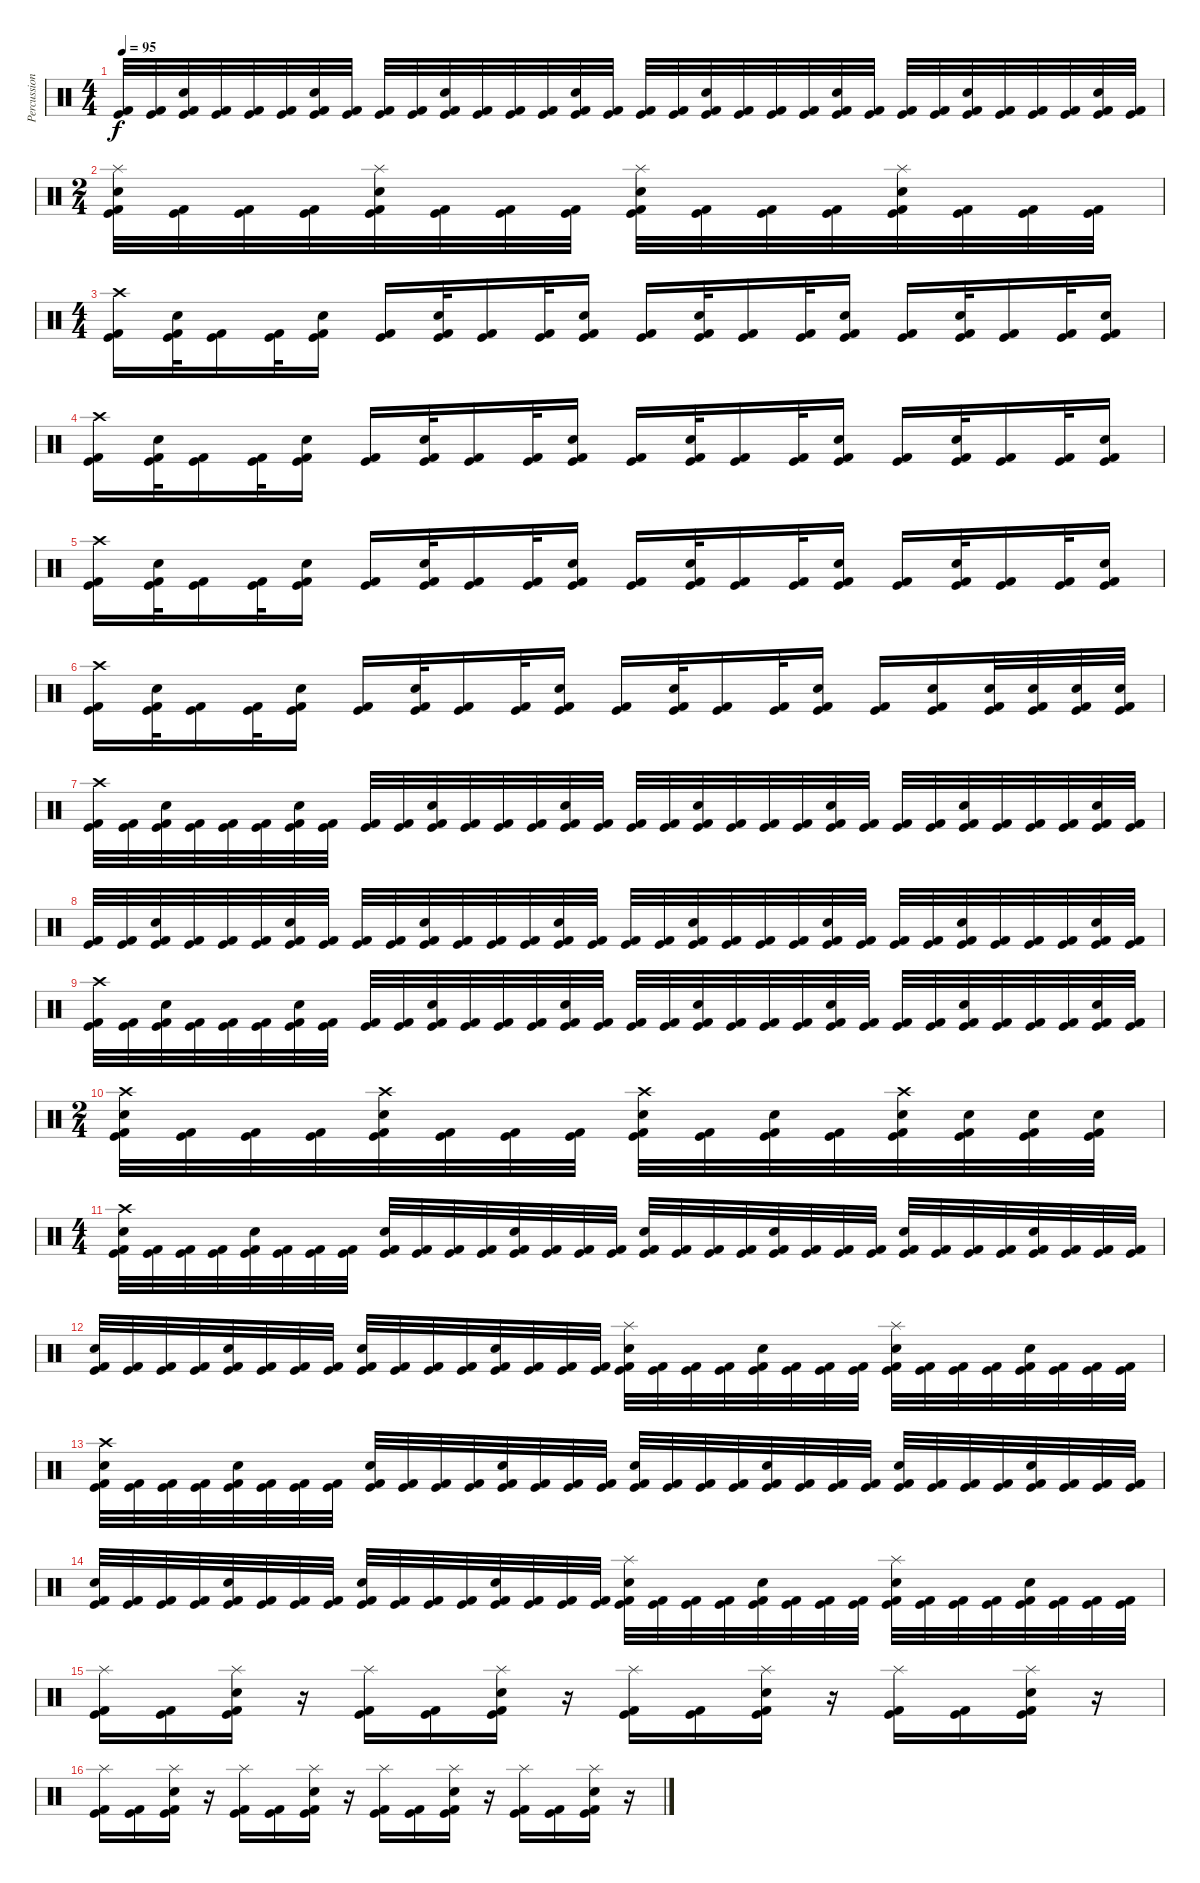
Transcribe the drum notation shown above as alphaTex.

\track ("Percussion" "Percussion") {instrument percussion}
\staff {score}
\articulation defaults
\ts (4 4)
\tempo 95
\clef neutral
\ks c
("Kick (hit) 2" "Kick (hit)").32{dy f} ("Kick (hit) 2" "Kick (hit)").32 ("Snare (hit) 2" "Kick (hit) 2" "Kick (hit)").32 ("Kick (hit) 2" "Kick (hit)").32 ("Kick (hit) 2" "Kick (hit)").32 ("Kick (hit) 2" "Kick (hit)").32 ("Snare (hit) 2" "Kick (hit) 2" "Kick (hit)").32 ("Kick (hit) 2" "Kick (hit)").32 ("Kick (hit) 2" "Kick (hit)").32 ("Kick (hit) 2" "Kick (hit)").32 ("Snare (hit) 2" "Kick (hit) 2" "Kick (hit)").32 ("Kick (hit) 2" "Kick (hit)").32 ("Kick (hit) 2" "Kick (hit)").32 ("Kick (hit) 2" "Kick (hit)").32 ("Snare (hit) 2" "Kick (hit) 2" "Kick (hit)").32 ("Kick (hit) 2" "Kick (hit)").32 ("Kick (hit) 2" "Kick (hit)").32 ("Kick (hit) 2" "Kick (hit)").32 ("Snare (hit) 2" "Kick (hit) 2" "Kick (hit)").32 ("Kick (hit) 2" "Kick (hit)").32 ("Kick (hit) 2" "Kick (hit)").32 ("Kick (hit) 2" "Kick (hit)").32 ("Snare (hit) 2" "Kick (hit) 2" "Kick (hit)").32 ("Kick (hit) 2" "Kick (hit)").32 ("Kick (hit) 2" "Kick (hit)").32 ("Kick (hit) 2" "Kick (hit)").32 ("Snare (hit) 2" "Kick (hit) 2" "Kick (hit)").32 ("Kick (hit) 2" "Kick (hit)").32 ("Kick (hit) 2" "Kick (hit)").32 ("Kick (hit) 2" "Kick (hit)").32 ("Snare (hit) 2" "Kick (hit) 2" "Kick (hit)").32 ("Kick (hit) 2" "Kick (hit)").32 |
\ts (2 4)
("Splash (hit)" "Snare (hit) 2" "Kick (hit) 2" "Kick (hit)").32 ("Kick (hit) 2" "Kick (hit)").32 ("Kick (hit) 2" "Kick (hit)").32 ("Kick (hit) 2" "Kick (hit)").32 ("Splash (hit)" "Snare (hit) 2" "Kick (hit) 2" "Kick (hit)").32 ("Kick (hit) 2" "Kick (hit)").32 ("Kick (hit) 2" "Kick (hit)").32 ("Kick (hit) 2" "Kick (hit)").32 ("Splash (hit)" "Snare (hit) 2" "Kick (hit) 2" "Kick (hit)").32 ("Kick (hit) 2" "Kick (hit)").32 ("Kick (hit) 2" "Kick (hit)").32 ("Kick (hit) 2" "Kick (hit)").32 ("Splash (hit)" "Snare (hit) 2" "Kick (hit) 2" "Kick (hit)").32 ("Kick (hit) 2" "Kick (hit)").32 ("Kick (hit) 2" "Kick (hit)").32 ("Kick (hit) 2" "Kick (hit)").32 |
\ts (4 4)
("Crash high (hit)" "Kick (hit)" "Kick (hit) 2").16 ("Snare (hit) 2" "Kick (hit)" "Kick (hit) 2").32 ("Kick (hit)" "Kick (hit) 2").16 ("Kick (hit)" "Kick (hit) 2").32 ("Snare (hit) 2" "Kick (hit)" "Kick (hit) 2").16 ("Kick (hit)" "Kick (hit) 2").16 ("Snare (hit) 2" "Kick (hit)" "Kick (hit) 2").32 ("Kick (hit)" "Kick (hit) 2").16 ("Kick (hit)" "Kick (hit) 2").32 ("Snare (hit) 2" "Kick (hit)" "Kick (hit) 2").16 ("Kick (hit) 2" "Kick (hit)").16 ("Snare (hit) 2" "Kick (hit) 2" "Kick (hit)").32 ("Kick (hit) 2" "Kick (hit)").16 ("Kick (hit) 2" "Kick (hit)").32 ("Snare (hit) 2" "Kick (hit) 2" "Kick (hit)").16 ("Kick (hit) 2" "Kick (hit)").16 ("Snare (hit) 2" "Kick (hit) 2" "Kick (hit)").32 ("Kick (hit) 2" "Kick (hit)").16 ("Kick (hit) 2" "Kick (hit)").32 ("Snare (hit) 2" "Kick (hit) 2" "Kick (hit)").16 |
("Crash high (hit)" "Kick (hit)" "Kick (hit) 2").16 ("Snare (hit) 2" "Kick (hit)" "Kick (hit) 2").32 ("Kick (hit)" "Kick (hit) 2").16 ("Kick (hit)" "Kick (hit) 2").32 ("Snare (hit) 2" "Kick (hit)" "Kick (hit) 2").16 ("Kick (hit)" "Kick (hit) 2").16 ("Snare (hit) 2" "Kick (hit)" "Kick (hit) 2").32 ("Kick (hit)" "Kick (hit) 2").16 ("Kick (hit)" "Kick (hit) 2").32 ("Snare (hit) 2" "Kick (hit)" "Kick (hit) 2").16 ("Kick (hit) 2" "Kick (hit)").16 ("Snare (hit) 2" "Kick (hit) 2" "Kick (hit)").32 ("Kick (hit) 2" "Kick (hit)").16 ("Kick (hit) 2" "Kick (hit)").32 ("Snare (hit) 2" "Kick (hit) 2" "Kick (hit)").16 ("Kick (hit) 2" "Kick (hit)").16 ("Snare (hit) 2" "Kick (hit) 2" "Kick (hit)").32 ("Kick (hit) 2" "Kick (hit)").16 ("Kick (hit) 2" "Kick (hit)").32 ("Snare (hit) 2" "Kick (hit) 2" "Kick (hit)").16 |
("Crash high (hit)" "Kick (hit)" "Kick (hit) 2").16 ("Snare (hit) 2" "Kick (hit)" "Kick (hit) 2").32 ("Kick (hit)" "Kick (hit) 2").16 ("Kick (hit)" "Kick (hit) 2").32 ("Snare (hit) 2" "Kick (hit)" "Kick (hit) 2").16 ("Kick (hit)" "Kick (hit) 2").16 ("Snare (hit) 2" "Kick (hit)" "Kick (hit) 2").32 ("Kick (hit)" "Kick (hit) 2").16 ("Kick (hit)" "Kick (hit) 2").32 ("Snare (hit) 2" "Kick (hit)" "Kick (hit) 2").16 ("Kick (hit) 2" "Kick (hit)").16 ("Snare (hit) 2" "Kick (hit) 2" "Kick (hit)").32 ("Kick (hit) 2" "Kick (hit)").16 ("Kick (hit) 2" "Kick (hit)").32 ("Snare (hit) 2" "Kick (hit) 2" "Kick (hit)").16 ("Kick (hit) 2" "Kick (hit)").16 ("Snare (hit) 2" "Kick (hit) 2" "Kick (hit)").32 ("Kick (hit) 2" "Kick (hit)").16 ("Kick (hit) 2" "Kick (hit)").32 ("Snare (hit) 2" "Kick (hit) 2" "Kick (hit)").16 |
("Crash high (hit)" "Kick (hit)" "Kick (hit) 2").16 ("Snare (hit) 2" "Kick (hit)" "Kick (hit) 2").32 ("Kick (hit)" "Kick (hit) 2").16 ("Kick (hit)" "Kick (hit) 2").32 ("Snare (hit) 2" "Kick (hit)" "Kick (hit) 2").16 ("Kick (hit)" "Kick (hit) 2").16 ("Snare (hit) 2" "Kick (hit)" "Kick (hit) 2").32 ("Kick (hit)" "Kick (hit) 2").16 ("Kick (hit)" "Kick (hit) 2").32 ("Snare (hit) 2" "Kick (hit)" "Kick (hit) 2").16 ("Kick (hit) 2" "Kick (hit)").16 ("Snare (hit) 2" "Kick (hit) 2" "Kick (hit)").32 ("Kick (hit) 2" "Kick (hit)").16 ("Kick (hit) 2" "Kick (hit)").32 ("Snare (hit) 2" "Kick (hit) 2" "Kick (hit)").16 ("Kick (hit) 2" "Kick (hit)").16 ("Snare (hit) 2" "Kick (hit) 2" "Kick (hit)").16 ("Snare (hit) 2" "Kick (hit) 2" "Kick (hit)").32 ("Snare (hit) 2" "Kick (hit) 2" "Kick (hit)").32 ("Snare (hit) 2" "Kick (hit) 2" "Kick (hit)").32 ("Snare (hit) 2" "Kick (hit) 2" "Kick (hit)").32 |
("Crash high (hit)" "Kick (hit) 2" "Kick (hit)").32 ("Kick (hit) 2" "Kick (hit)").32 ("Snare (hit) 2" "Kick (hit) 2" "Kick (hit)").32 ("Kick (hit) 2" "Kick (hit)").32 ("Kick (hit) 2" "Kick (hit)").32 ("Kick (hit) 2" "Kick (hit)").32 ("Snare (hit) 2" "Kick (hit) 2" "Kick (hit)").32 ("Kick (hit) 2" "Kick (hit)").32 ("Kick (hit) 2" "Kick (hit)").32 ("Kick (hit) 2" "Kick (hit)").32 ("Snare (hit) 2" "Kick (hit) 2" "Kick (hit)").32 ("Kick (hit) 2" "Kick (hit)").32 ("Kick (hit) 2" "Kick (hit)").32 ("Kick (hit) 2" "Kick (hit)").32 ("Snare (hit) 2" "Kick (hit) 2" "Kick (hit)").32 ("Kick (hit) 2" "Kick (hit)").32 ("Kick (hit) 2" "Kick (hit)").32 ("Kick (hit) 2" "Kick (hit)").32 ("Snare (hit) 2" "Kick (hit) 2" "Kick (hit)").32 ("Kick (hit) 2" "Kick (hit)").32 ("Kick (hit) 2" "Kick (hit)").32 ("Kick (hit) 2" "Kick (hit)").32 ("Snare (hit) 2" "Kick (hit) 2" "Kick (hit)").32 ("Kick (hit) 2" "Kick (hit)").32 ("Kick (hit) 2" "Kick (hit)").32 ("Kick (hit) 2" "Kick (hit)").32 ("Snare (hit) 2" "Kick (hit) 2" "Kick (hit)").32 ("Kick (hit) 2" "Kick (hit)").32 ("Kick (hit) 2" "Kick (hit)").32 ("Kick (hit) 2" "Kick (hit)").32 ("Snare (hit) 2" "Kick (hit) 2" "Kick (hit)").32 ("Kick (hit) 2" "Kick (hit)").32 |
("Kick (hit) 2" "Kick (hit)").32 ("Kick (hit) 2" "Kick (hit)").32 ("Snare (hit) 2" "Kick (hit) 2" "Kick (hit)").32 ("Kick (hit) 2" "Kick (hit)").32 ("Kick (hit) 2" "Kick (hit)").32 ("Kick (hit) 2" "Kick (hit)").32 ("Snare (hit) 2" "Kick (hit) 2" "Kick (hit)").32 ("Kick (hit) 2" "Kick (hit)").32 ("Kick (hit) 2" "Kick (hit)").32 ("Kick (hit) 2" "Kick (hit)").32 ("Snare (hit) 2" "Kick (hit) 2" "Kick (hit)").32 ("Kick (hit) 2" "Kick (hit)").32 ("Kick (hit) 2" "Kick (hit)").32 ("Kick (hit) 2" "Kick (hit)").32 ("Snare (hit) 2" "Kick (hit) 2" "Kick (hit)").32 ("Kick (hit) 2" "Kick (hit)").32 ("Kick (hit) 2" "Kick (hit)").32 ("Kick (hit) 2" "Kick (hit)").32 ("Snare (hit) 2" "Kick (hit) 2" "Kick (hit)").32 ("Kick (hit) 2" "Kick (hit)").32 ("Kick (hit) 2" "Kick (hit)").32 ("Kick (hit) 2" "Kick (hit)").32 ("Snare (hit) 2" "Kick (hit) 2" "Kick (hit)").32 ("Kick (hit) 2" "Kick (hit)").32 ("Kick (hit) 2" "Kick (hit)").32 ("Kick (hit) 2" "Kick (hit)").32 ("Snare (hit) 2" "Kick (hit) 2" "Kick (hit)").32 ("Kick (hit) 2" "Kick (hit)").32 ("Kick (hit) 2" "Kick (hit)").32 ("Kick (hit) 2" "Kick (hit)").32 ("Snare (hit) 2" "Kick (hit) 2" "Kick (hit)").32 ("Kick (hit) 2" "Kick (hit)").32 |
("Crash high (hit)" "Kick (hit) 2" "Kick (hit)").32 ("Kick (hit) 2" "Kick (hit)").32 ("Snare (hit) 2" "Kick (hit) 2" "Kick (hit)").32 ("Kick (hit) 2" "Kick (hit)").32 ("Kick (hit) 2" "Kick (hit)").32 ("Kick (hit) 2" "Kick (hit)").32 ("Snare (hit) 2" "Kick (hit) 2" "Kick (hit)").32 ("Kick (hit) 2" "Kick (hit)").32 ("Kick (hit) 2" "Kick (hit)").32 ("Kick (hit) 2" "Kick (hit)").32 ("Snare (hit) 2" "Kick (hit) 2" "Kick (hit)").32 ("Kick (hit) 2" "Kick (hit)").32 ("Kick (hit) 2" "Kick (hit)").32 ("Kick (hit) 2" "Kick (hit)").32 ("Snare (hit) 2" "Kick (hit) 2" "Kick (hit)").32 ("Kick (hit) 2" "Kick (hit)").32 ("Kick (hit) 2" "Kick (hit)").32 ("Kick (hit) 2" "Kick (hit)").32 ("Snare (hit) 2" "Kick (hit) 2" "Kick (hit)").32 ("Kick (hit) 2" "Kick (hit)").32 ("Kick (hit) 2" "Kick (hit)").32 ("Kick (hit) 2" "Kick (hit)").32 ("Snare (hit) 2" "Kick (hit) 2" "Kick (hit)").32 ("Kick (hit) 2" "Kick (hit)").32 ("Kick (hit) 2" "Kick (hit)").32 ("Kick (hit) 2" "Kick (hit)").32 ("Snare (hit) 2" "Kick (hit) 2" "Kick (hit)").32 ("Kick (hit) 2" "Kick (hit)").32 ("Kick (hit) 2" "Kick (hit)").32 ("Kick (hit) 2" "Kick (hit)").32 ("Snare (hit) 2" "Kick (hit) 2" "Kick (hit)").32 ("Kick (hit) 2" "Kick (hit)").32 |
\ts (2 4)
("Crash high (hit)" "Snare (hit) 2" "Kick (hit) 2" "Kick (hit)").32 ("Kick (hit) 2" "Kick (hit)").32 ("Kick (hit) 2" "Kick (hit)").32 ("Kick (hit) 2" "Kick (hit)").32 ("Crash high (hit)" "Snare (hit) 2" "Kick (hit) 2" "Kick (hit)").32 ("Kick (hit) 2" "Kick (hit)").32 ("Kick (hit) 2" "Kick (hit)").32 ("Kick (hit) 2" "Kick (hit)").32 ("Crash high (hit)" "Snare (hit) 2" "Kick (hit) 2" "Kick (hit)").32 ("Kick (hit) 2" "Kick (hit)").32 ("Snare (hit) 2" "Kick (hit) 2" "Kick (hit)").32 ("Kick (hit) 2" "Kick (hit)").32 ("Crash high (hit)" "Snare (hit) 2" "Kick (hit) 2" "Kick (hit)").32 ("Snare (hit) 2" "Kick (hit) 2" "Kick (hit)").32 ("Snare (hit) 2" "Kick (hit) 2" "Kick (hit)").32 ("Snare (hit) 2" "Kick (hit) 2" "Kick (hit)").32 |
\ts (4 4)
("Crash high (hit)" "Snare (hit) 2" "Kick (hit) 2" "Kick (hit)").32 ("Kick (hit) 2" "Kick (hit)").32 ("Kick (hit) 2" "Kick (hit)").32 ("Kick (hit) 2" "Kick (hit)").32 ("Snare (hit) 2" "Kick (hit) 2" "Kick (hit)").32 ("Kick (hit) 2" "Kick (hit)").32 ("Kick (hit) 2" "Kick (hit)").32 ("Kick (hit) 2" "Kick (hit)").32 ("Snare (hit) 2" "Kick (hit) 2" "Kick (hit)").32 ("Kick (hit) 2" "Kick (hit)").32 ("Kick (hit) 2" "Kick (hit)").32 ("Kick (hit) 2" "Kick (hit)").32 ("Snare (hit) 2" "Kick (hit) 2" "Kick (hit)").32 ("Kick (hit) 2" "Kick (hit)").32 ("Kick (hit) 2" "Kick (hit)").32 ("Kick (hit) 2" "Kick (hit)").32 ("Snare (hit) 2" "Kick (hit) 2" "Kick (hit)").32 ("Kick (hit) 2" "Kick (hit)").32 ("Kick (hit) 2" "Kick (hit)").32 ("Kick (hit) 2" "Kick (hit)").32 ("Snare (hit) 2" "Kick (hit) 2" "Kick (hit)").32 ("Kick (hit) 2" "Kick (hit)").32 ("Kick (hit) 2" "Kick (hit)").32 ("Kick (hit) 2" "Kick (hit)").32 ("Snare (hit) 2" "Kick (hit) 2" "Kick (hit)").32 ("Kick (hit) 2" "Kick (hit)").32 ("Kick (hit) 2" "Kick (hit)").32 ("Kick (hit) 2" "Kick (hit)").32 ("Snare (hit) 2" "Kick (hit) 2" "Kick (hit)").32 ("Kick (hit) 2" "Kick (hit)").32 ("Kick (hit) 2" "Kick (hit)").32 ("Kick (hit) 2" "Kick (hit)").32 |
("Snare (hit) 2" "Kick (hit) 2" "Kick (hit)").32 ("Kick (hit) 2" "Kick (hit)").32 ("Kick (hit) 2" "Kick (hit)").32 ("Kick (hit) 2" "Kick (hit)").32 ("Snare (hit) 2" "Kick (hit) 2" "Kick (hit)").32 ("Kick (hit) 2" "Kick (hit)").32 ("Kick (hit) 2" "Kick (hit)").32 ("Kick (hit) 2" "Kick (hit)").32 ("Snare (hit) 2" "Kick (hit) 2" "Kick (hit)").32 ("Kick (hit) 2" "Kick (hit)").32 ("Kick (hit) 2" "Kick (hit)").32 ("Kick (hit) 2" "Kick (hit)").32 ("Snare (hit) 2" "Kick (hit) 2" "Kick (hit)").32 ("Kick (hit) 2" "Kick (hit)").32 ("Kick (hit) 2" "Kick (hit)").32 ("Kick (hit) 2" "Kick (hit)").32 ("Splash (hit)" "Snare (hit) 2" "Kick (hit) 2" "Kick (hit)").32 ("Kick (hit) 2" "Kick (hit)").32 ("Kick (hit) 2" "Kick (hit)").32 ("Kick (hit) 2" "Kick (hit)").32 ("Snare (hit) 2" "Kick (hit) 2" "Kick (hit)").32 ("Kick (hit) 2" "Kick (hit)").32 ("Kick (hit) 2" "Kick (hit)").32 ("Kick (hit) 2" "Kick (hit)").32 ("Splash (hit)" "Snare (hit) 2" "Kick (hit) 2" "Kick (hit)").32 ("Kick (hit) 2" "Kick (hit)").32 ("Kick (hit) 2" "Kick (hit)").32 ("Kick (hit) 2" "Kick (hit)").32 ("Snare (hit) 2" "Kick (hit) 2" "Kick (hit)").32 ("Kick (hit) 2" "Kick (hit)").32 ("Kick (hit) 2" "Kick (hit)").32 ("Kick (hit) 2" "Kick (hit)").32 |
("Crash high (hit)" "Snare (hit) 2" "Kick (hit) 2" "Kick (hit)").32 ("Kick (hit) 2" "Kick (hit)").32 ("Kick (hit) 2" "Kick (hit)").32 ("Kick (hit) 2" "Kick (hit)").32 ("Snare (hit) 2" "Kick (hit) 2" "Kick (hit)").32 ("Kick (hit) 2" "Kick (hit)").32 ("Kick (hit) 2" "Kick (hit)").32 ("Kick (hit) 2" "Kick (hit)").32 ("Snare (hit) 2" "Kick (hit) 2" "Kick (hit)").32 ("Kick (hit) 2" "Kick (hit)").32 ("Kick (hit) 2" "Kick (hit)").32 ("Kick (hit) 2" "Kick (hit)").32 ("Snare (hit) 2" "Kick (hit) 2" "Kick (hit)").32 ("Kick (hit) 2" "Kick (hit)").32 ("Kick (hit) 2" "Kick (hit)").32 ("Kick (hit) 2" "Kick (hit)").32 ("Snare (hit) 2" "Kick (hit) 2" "Kick (hit)").32 ("Kick (hit) 2" "Kick (hit)").32 ("Kick (hit) 2" "Kick (hit)").32 ("Kick (hit) 2" "Kick (hit)").32 ("Snare (hit) 2" "Kick (hit) 2" "Kick (hit)").32 ("Kick (hit) 2" "Kick (hit)").32 ("Kick (hit) 2" "Kick (hit)").32 ("Kick (hit) 2" "Kick (hit)").32 ("Snare (hit) 2" "Kick (hit) 2" "Kick (hit)").32 ("Kick (hit) 2" "Kick (hit)").32 ("Kick (hit) 2" "Kick (hit)").32 ("Kick (hit) 2" "Kick (hit)").32 ("Snare (hit) 2" "Kick (hit) 2" "Kick (hit)").32 ("Kick (hit) 2" "Kick (hit)").32 ("Kick (hit) 2" "Kick (hit)").32 ("Kick (hit) 2" "Kick (hit)").32 |
("Snare (hit) 2" "Kick (hit) 2" "Kick (hit)").32 ("Kick (hit) 2" "Kick (hit)").32 ("Kick (hit) 2" "Kick (hit)").32 ("Kick (hit) 2" "Kick (hit)").32 ("Snare (hit) 2" "Kick (hit) 2" "Kick (hit)").32 ("Kick (hit) 2" "Kick (hit)").32 ("Kick (hit) 2" "Kick (hit)").32 ("Kick (hit) 2" "Kick (hit)").32 ("Snare (hit) 2" "Kick (hit) 2" "Kick (hit)").32 ("Kick (hit) 2" "Kick (hit)").32 ("Kick (hit) 2" "Kick (hit)").32 ("Kick (hit) 2" "Kick (hit)").32 ("Snare (hit) 2" "Kick (hit) 2" "Kick (hit)").32 ("Kick (hit) 2" "Kick (hit)").32 ("Kick (hit) 2" "Kick (hit)").32 ("Kick (hit) 2" "Kick (hit)").32 ("Splash (hit)" "Snare (hit) 2" "Kick (hit) 2" "Kick (hit)").32 ("Kick (hit) 2" "Kick (hit)").32 ("Kick (hit) 2" "Kick (hit)").32 ("Kick (hit) 2" "Kick (hit)").32 ("Snare (hit) 2" "Kick (hit) 2" "Kick (hit)").32 ("Kick (hit) 2" "Kick (hit)").32 ("Kick (hit) 2" "Kick (hit)").32 ("Kick (hit) 2" "Kick (hit)").32 ("Splash (hit)" "Snare (hit) 2" "Kick (hit) 2" "Kick (hit)").32 ("Kick (hit) 2" "Kick (hit)").32 ("Kick (hit) 2" "Kick (hit)").32 ("Kick (hit) 2" "Kick (hit)").32 ("Snare (hit) 2" "Kick (hit) 2" "Kick (hit)").32 ("Kick (hit) 2" "Kick (hit)").32 ("Kick (hit) 2" "Kick (hit)").32 ("Kick (hit) 2" "Kick (hit)").32 |
("Splash (hit)" "Kick (hit) 2" "Kick (hit)").16 ("Kick (hit) 2" "Kick (hit)").16 ("Splash (hit)" "Snare (hit) 2" "Kick (hit) 2" "Kick (hit)").16 r.16 ("Splash (hit)" "Kick (hit) 2" "Kick (hit)").16 ("Kick (hit) 2" "Kick (hit)").16 ("Splash (hit)" "Snare (hit) 2" "Kick (hit) 2" "Kick (hit)").16 r.16 ("Splash (hit)" "Kick (hit) 2" "Kick (hit)").16 ("Kick (hit) 2" "Kick (hit)").16 ("Splash (hit)" "Snare (hit) 2" "Kick (hit) 2" "Kick (hit)").16 r.16 ("Splash (hit)" "Kick (hit) 2" "Kick (hit)").16 ("Kick (hit) 2" "Kick (hit)").16 ("Splash (hit)" "Snare (hit) 2" "Kick (hit) 2" "Kick (hit)").16 r.16 |
("Splash (hit)" "Kick (hit) 2" "Kick (hit)").16 ("Kick (hit) 2" "Kick (hit)").16 ("Splash (hit)" "Snare (hit) 2" "Kick (hit) 2" "Kick (hit)").16 r.16 ("Splash (hit)" "Kick (hit) 2" "Kick (hit)").16 ("Kick (hit) 2" "Kick (hit)").16 ("Splash (hit)" "Snare (hit) 2" "Kick (hit) 2" "Kick (hit)").16 r.16 ("Splash (hit)" "Kick (hit) 2" "Kick (hit)").16 ("Kick (hit) 2" "Kick (hit)").16 ("Splash (hit)" "Snare (hit) 2" "Kick (hit) 2" "Kick (hit)").16 r.16 ("Splash (hit)" "Kick (hit) 2" "Kick (hit)").16 ("Kick (hit) 2" "Kick (hit)").16 ("Splash (hit)" "Snare (hit) 2" "Kick (hit) 2" "Kick (hit)").16 r.16
